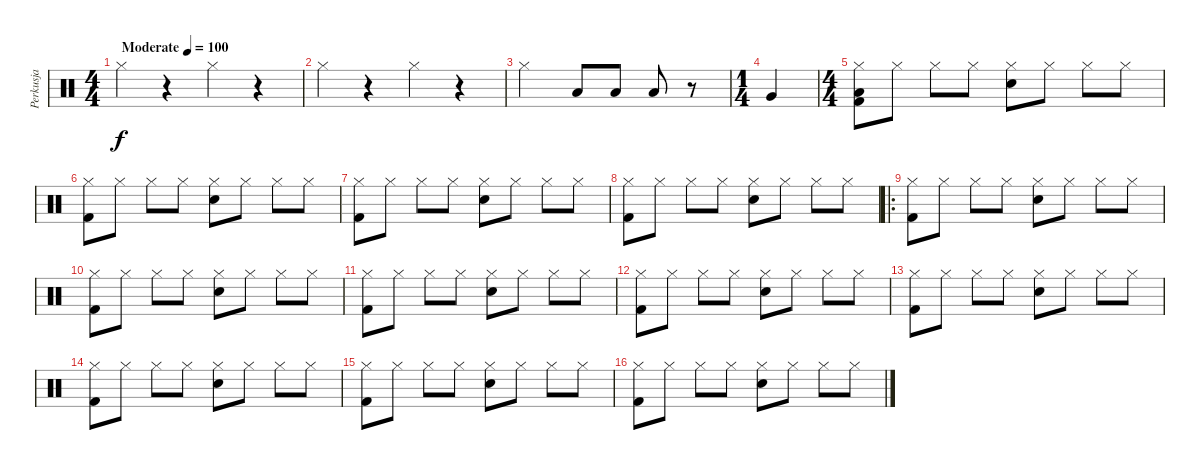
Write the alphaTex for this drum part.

\track ("Perkusja" "Perkusja") {instrument percussion}
\staff {score}
\articulation defaults
\ts (4 4)
\tempo (100 "Moderate")
\clef neutral
\ks c "Hi-Hat (closed)".4{dy f}
r.4 "Hi-Hat (closed)".4 r.4 |
"Hi-Hat (closed)".4 r.4 "Hi-Hat (closed)".4 r.4 |
"Hi-Hat (closed)".2 "Low Tom (hit)".8 "Low Tom (hit)".8 "Low Tom (hit)".8 r.8 |
\ts (1 4)
"Very Low Tom (hit)".4 |
\ts (4 4)
("Hi-Hat (closed)" "Low Floor Tom (hit)" "Kick (hit) 2").8 "Hi-Hat (closed)".8 "Hi-Hat (closed)".8 "Hi-Hat (closed)".8 ("Hi-Hat (closed)" "Electric Snare (hit)").8 "Hi-Hat (closed)".8 "Hi-Hat (closed)".8 "Hi-Hat (closed)".8 |
("Hi-Hat (closed)" "Kick (hit) 2").8 "Hi-Hat (closed)".8 "Hi-Hat (closed)".8 "Hi-Hat (closed)".8 ("Hi-Hat (closed)" "Electric Snare (hit)").8 "Hi-Hat (closed)".8 "Hi-Hat (closed)".8 "Hi-Hat (closed)".8 |
("Hi-Hat (closed)" "Kick (hit) 2").8 "Hi-Hat (closed)".8 "Hi-Hat (closed)".8 "Hi-Hat (closed)".8 ("Hi-Hat (closed)" "Electric Snare (hit)").8 "Hi-Hat (closed)".8 "Hi-Hat (closed)".8 "Hi-Hat (closed)".8 |
("Hi-Hat (closed)" "Kick (hit) 2").8 "Hi-Hat (closed)".8 "Hi-Hat (closed)".8 "Hi-Hat (closed)".8 ("Hi-Hat (closed)" "Electric Snare (hit)").8 "Hi-Hat (closed)".8 "Hi-Hat (closed)".8 "Hi-Hat (closed)".8 |
\ro
("Hi-Hat (closed)" "Kick (hit) 2").8 "Hi-Hat (closed)".8 "Hi-Hat (closed)".8 "Hi-Hat (closed)".8 ("Hi-Hat (closed)" "Electric Snare (hit)").8 "Hi-Hat (closed)".8 "Hi-Hat (closed)".8 "Hi-Hat (closed)".8 |
("Hi-Hat (closed)" "Kick (hit) 2").8 "Hi-Hat (closed)".8 "Hi-Hat (closed)".8 "Hi-Hat (closed)".8 ("Hi-Hat (closed)" "Electric Snare (hit)").8 "Hi-Hat (closed)".8 "Hi-Hat (closed)".8 "Hi-Hat (closed)".8 |
("Hi-Hat (closed)" "Kick (hit) 2").8 "Hi-Hat (closed)".8 "Hi-Hat (closed)".8 "Hi-Hat (closed)".8 ("Hi-Hat (closed)" "Electric Snare (hit)").8 "Hi-Hat (closed)".8 "Hi-Hat (closed)".8 "Hi-Hat (closed)".8 |
("Hi-Hat (closed)" "Kick (hit) 2").8 "Hi-Hat (closed)".8 "Hi-Hat (closed)".8 "Hi-Hat (closed)".8 ("Hi-Hat (closed)" "Electric Snare (hit)").8 "Hi-Hat (closed)".8 "Hi-Hat (closed)".8 "Hi-Hat (closed)".8 |
("Hi-Hat (closed)" "Kick (hit) 2").8 "Hi-Hat (closed)".8 "Hi-Hat (closed)".8 "Hi-Hat (closed)".8 ("Hi-Hat (closed)" "Electric Snare (hit)").8 "Hi-Hat (closed)".8 "Hi-Hat (closed)".8 "Hi-Hat (closed)".8 |
("Hi-Hat (closed)" "Kick (hit) 2").8 "Hi-Hat (closed)".8 "Hi-Hat (closed)".8 "Hi-Hat (closed)".8 ("Hi-Hat (closed)" "Electric Snare (hit)").8 "Hi-Hat (closed)".8 "Hi-Hat (closed)".8 "Hi-Hat (closed)".8 |
("Hi-Hat (closed)" "Kick (hit) 2").8 "Hi-Hat (closed)".8 "Hi-Hat (closed)".8 "Hi-Hat (closed)".8 ("Hi-Hat (closed)" "Electric Snare (hit)").8 "Hi-Hat (closed)".8 "Hi-Hat (closed)".8 "Hi-Hat (closed)".8 |
("Hi-Hat (closed)" "Kick (hit) 2").8 "Hi-Hat (closed)".8 "Hi-Hat (closed)".8 "Hi-Hat (closed)".8 ("Hi-Hat (closed)" "Electric Snare (hit)").8 "Hi-Hat (closed)".8 "Hi-Hat (closed)".8 "Hi-Hat (closed)".8
